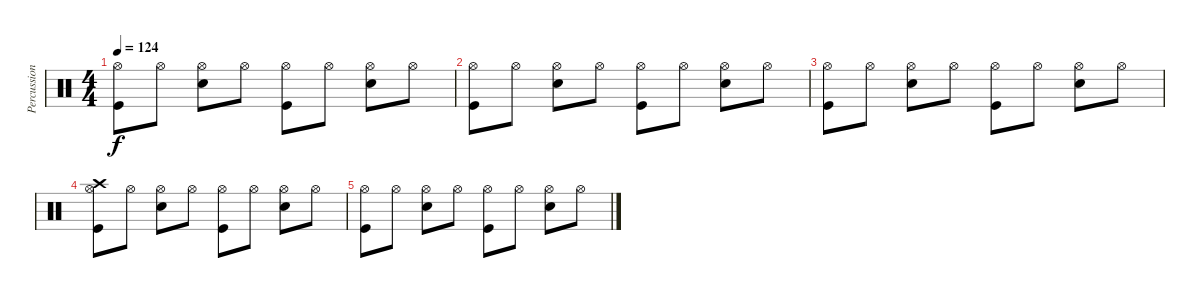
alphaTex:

\track ("Percussions" "Percussion") {instrument percussion}
\staff {score}
\articulation defaults
\ts (4 4)
\tempo 124
\clef neutral
\ks c
("Hi-Hat (open)" "Kick (hit)").8{dy f} "Hi-Hat (open)".8 ("Hi-Hat (open)" "Electric Snare (hit)").8 "Hi-Hat (open)".8 ("Hi-Hat (open)" "Kick (hit)").8 "Hi-Hat (open)".8 ("Hi-Hat (open)" "Electric Snare (hit)").8 "Hi-Hat (open)".8 |
("Hi-Hat (open)" "Kick (hit)").8 "Hi-Hat (open)".8 ("Hi-Hat (open)" "Electric Snare (hit)").8 "Hi-Hat (open)".8 ("Hi-Hat (open)" "Kick (hit)").8 "Hi-Hat (open)".8 ("Hi-Hat (open)" "Electric Snare (hit)").8 "Hi-Hat (open)".8 |
("Hi-Hat (open)" "Kick (hit)").8 "Hi-Hat (open)".8 ("Hi-Hat (open)" "Electric Snare (hit)").8 "Hi-Hat (open)".8 ("Hi-Hat (open)" "Kick (hit)").8 "Hi-Hat (open)".8 ("Hi-Hat (open)" "Electric Snare (hit)").8 "Hi-Hat (open)".8 |
("Hi-Hat (open)" "Kick (hit)" "Crash high (hit)").8 "Hi-Hat (open)".8 ("Hi-Hat (open)" "Electric Snare (hit)").8 "Hi-Hat (open)".8 ("Hi-Hat (open)" "Kick (hit)").8 "Hi-Hat (open)".8 ("Hi-Hat (open)" "Electric Snare (hit)").8 "Hi-Hat (open)".8 |
("Hi-Hat (open)" "Kick (hit)").8 "Hi-Hat (open)".8 ("Hi-Hat (open)" "Electric Snare (hit)").8 "Hi-Hat (open)".8 ("Hi-Hat (open)" "Kick (hit)").8 "Hi-Hat (open)".8 ("Hi-Hat (open)" "Electric Snare (hit)").8 "Hi-Hat (open)".8
